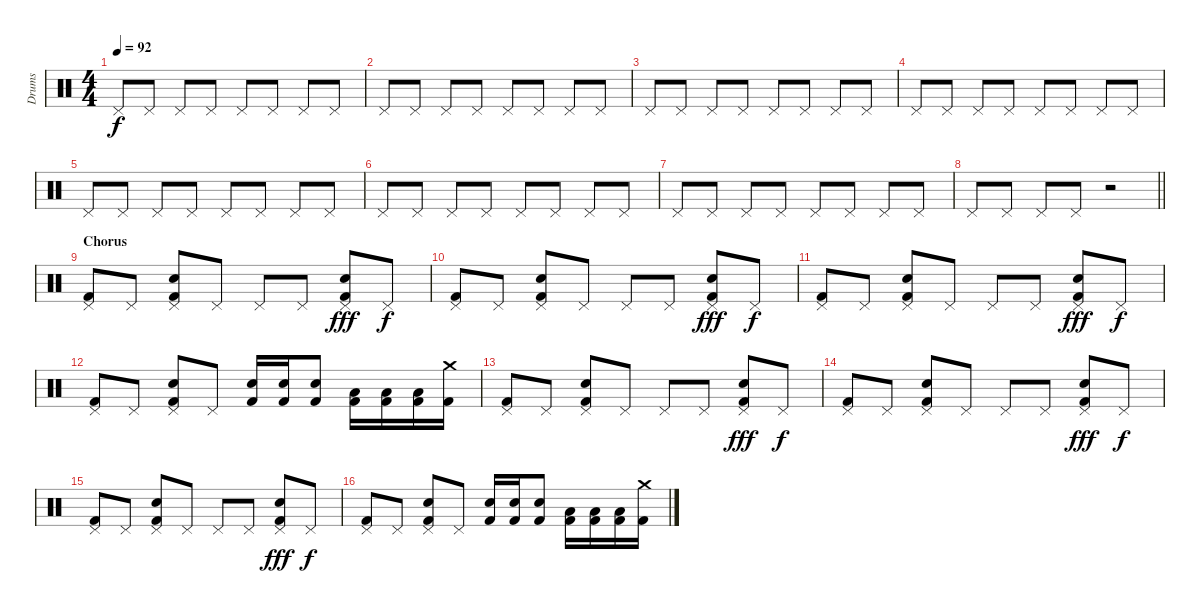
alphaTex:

\track ("Drums" "Drums") {instrument percussion}
\staff {score}
\articulation defaults
\ts (4 4)
\tempo 92
\clef neutral
\ks c "Pedal Hi-Hat (hit)".8{dy f} "Pedal Hi-Hat (hit)".8 "Pedal Hi-Hat (hit)".8 "Pedal Hi-Hat (hit)".8 "Pedal Hi-Hat (hit)".8 "Pedal Hi-Hat (hit)".8 "Pedal Hi-Hat (hit)".8 "Pedal Hi-Hat (hit)".8
|
"Pedal Hi-Hat (hit)".8 "Pedal Hi-Hat (hit)".8 "Pedal Hi-Hat (hit)".8 "Pedal Hi-Hat (hit)".8 "Pedal Hi-Hat (hit)".8 "Pedal Hi-Hat (hit)".8 "Pedal Hi-Hat (hit)".8 "Pedal Hi-Hat (hit)".8 |
"Pedal Hi-Hat (hit)".8 "Pedal Hi-Hat (hit)".8 "Pedal Hi-Hat (hit)".8 "Pedal Hi-Hat (hit)".8 "Pedal Hi-Hat (hit)".8 "Pedal Hi-Hat (hit)".8 "Pedal Hi-Hat (hit)".8 "Pedal Hi-Hat (hit)".8 |
"Pedal Hi-Hat (hit)".8 "Pedal Hi-Hat (hit)".8 "Pedal Hi-Hat (hit)".8 "Pedal Hi-Hat (hit)".8 "Pedal Hi-Hat (hit)".8 "Pedal Hi-Hat (hit)".8 "Pedal Hi-Hat (hit)".8 "Pedal Hi-Hat (hit)".8 |
"Pedal Hi-Hat (hit)".8 "Pedal Hi-Hat (hit)".8 "Pedal Hi-Hat (hit)".8 "Pedal Hi-Hat (hit)".8 "Pedal Hi-Hat (hit)".8 "Pedal Hi-Hat (hit)".8 "Pedal Hi-Hat (hit)".8 "Pedal Hi-Hat (hit)".8 |
"Pedal Hi-Hat (hit)".8 "Pedal Hi-Hat (hit)".8 "Pedal Hi-Hat (hit)".8 "Pedal Hi-Hat (hit)".8 "Pedal Hi-Hat (hit)".8 "Pedal Hi-Hat (hit)".8 "Pedal Hi-Hat (hit)".8 "Pedal Hi-Hat (hit)".8 |
"Pedal Hi-Hat (hit)".8 "Pedal Hi-Hat (hit)".8 "Pedal Hi-Hat (hit)".8 "Pedal Hi-Hat (hit)".8 "Pedal Hi-Hat (hit)".8 "Pedal Hi-Hat (hit)".8 "Pedal Hi-Hat (hit)".8 "Pedal Hi-Hat (hit)".8 |
\barLineRight lightlight "Pedal Hi-Hat (hit)".8 "Pedal Hi-Hat (hit)".8 "Pedal Hi-Hat (hit)".8 "Pedal Hi-Hat (hit)".8
r.2 |
\section ("" "Chorus")
("Pedal Hi-Hat (hit)" "Kick (hit) 2").8 "Pedal Hi-Hat (hit)".8 ("Pedal Hi-Hat (hit)" "Snare (hit) 2" "Kick (hit) 2").8 "Pedal Hi-Hat (hit)".8 "Pedal Hi-Hat (hit)".8 "Pedal Hi-Hat (hit)".8 ("Pedal Hi-Hat (hit)" "Snare (hit) 2" "Kick (hit) 2").8{dy fff} "Pedal Hi-Hat (hit)".8{dy f} |
("Pedal Hi-Hat (hit)" "Kick (hit) 2").8 "Pedal Hi-Hat (hit)".8 ("Pedal Hi-Hat (hit)" "Kick (hit) 2" "Snare (hit) 2").8 "Pedal Hi-Hat (hit)".8 "Pedal Hi-Hat (hit)".8 "Pedal Hi-Hat (hit)".8 ("Pedal Hi-Hat (hit)" "Snare (hit) 2" "Kick (hit) 2").8{dy fff} "Pedal Hi-Hat (hit)".8{dy f} |
("Pedal Hi-Hat (hit)" "Kick (hit) 2").8 "Pedal Hi-Hat (hit)".8 ("Pedal Hi-Hat (hit)" "Kick (hit) 2" "Snare (hit) 2").8 "Pedal Hi-Hat (hit)".8 "Pedal Hi-Hat (hit)".8 "Pedal Hi-Hat (hit)".8 ("Pedal Hi-Hat (hit)" "Snare (hit) 2" "Kick (hit) 2").8{dy fff} "Pedal Hi-Hat (hit)".8{dy f} |
("Pedal Hi-Hat (hit)" "Kick (hit) 2").8 "Pedal Hi-Hat (hit)".8 ("Pedal Hi-Hat (hit)" "Kick (hit) 2" "Snare (hit) 2").8 "Pedal Hi-Hat (hit)".8 ("Snare (hit) 2" "Kick (hit) 2").16 ("Snare (hit) 2" "Kick (hit) 2").16 ("Snare (hit) 2" "Kick (hit) 2").8 ("Low Floor Tom (hit)" "Kick (hit) 2").16 ("Low Floor Tom (hit)" "Kick (hit) 2").16 ("Low Floor Tom (hit)" "Kick (hit) 2").16 ("Crash medium (hit)" "Kick (hit) 2").16 |
("Pedal Hi-Hat (hit)" "Kick (hit) 2").8 "Pedal Hi-Hat (hit)".8 ("Pedal Hi-Hat (hit)" "Kick (hit) 2" "Snare (hit) 2").8 "Pedal Hi-Hat (hit)".8 "Pedal Hi-Hat (hit)".8 "Pedal Hi-Hat (hit)".8 ("Pedal Hi-Hat (hit)" "Snare (hit) 2" "Kick (hit) 2").8{dy fff} "Pedal Hi-Hat (hit)".8{dy f} |
("Pedal Hi-Hat (hit)" "Kick (hit) 2").8 "Pedal Hi-Hat (hit)".8 ("Pedal Hi-Hat (hit)" "Kick (hit) 2" "Snare (hit) 2").8 "Pedal Hi-Hat (hit)".8 "Pedal Hi-Hat (hit)".8 "Pedal Hi-Hat (hit)".8 ("Pedal Hi-Hat (hit)" "Snare (hit) 2" "Kick (hit) 2").8{dy fff} "Pedal Hi-Hat (hit)".8{dy f} |
("Pedal Hi-Hat (hit)" "Kick (hit) 2").8 "Pedal Hi-Hat (hit)".8 ("Pedal Hi-Hat (hit)" "Kick (hit) 2" "Snare (hit) 2").8 "Pedal Hi-Hat (hit)".8 "Pedal Hi-Hat (hit)".8 "Pedal Hi-Hat (hit)".8 ("Pedal Hi-Hat (hit)" "Snare (hit) 2" "Kick (hit) 2").8{dy fff} "Pedal Hi-Hat (hit)".8{dy f} |
("Pedal Hi-Hat (hit)" "Kick (hit) 2").8 "Pedal Hi-Hat (hit)".8 ("Pedal Hi-Hat (hit)" "Kick (hit) 2" "Snare (hit) 2").8 "Pedal Hi-Hat (hit)".8 ("Snare (hit) 2" "Kick (hit) 2").16 ("Snare (hit) 2" "Kick (hit) 2").16 ("Snare (hit) 2" "Kick (hit) 2").8 ("Low Floor Tom (hit)" "Kick (hit) 2").16 ("Low Floor Tom (hit)" "Kick (hit) 2").16 ("Low Floor Tom (hit)" "Kick (hit) 2").16 ("Crash medium (hit)" "Kick (hit) 2").16
